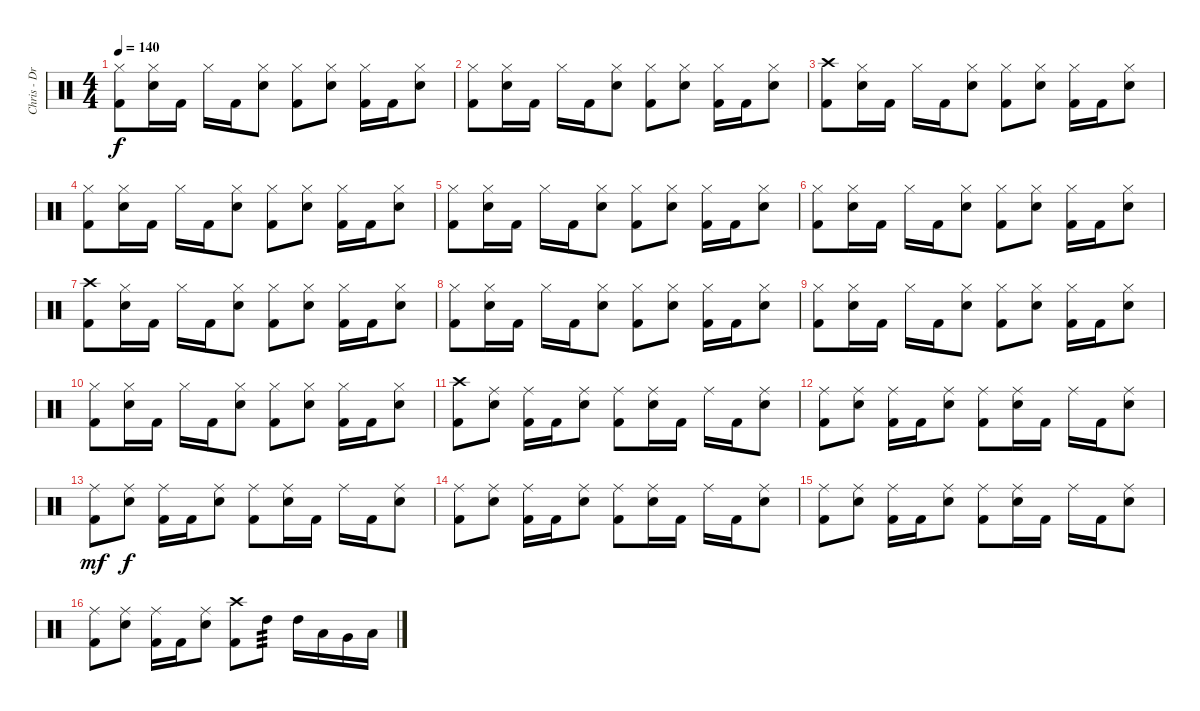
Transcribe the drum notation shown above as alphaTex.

\track ("Chris - Drums" "Chris - Dr") {instrument percussion}
\staff {score}
\articulation defaults
\ts (4 4)
\tempo 140
\clef neutral
\ks c
("Hi-Hat (closed)" "Kick (hit) 2").8{dy f} ("Hi-Hat (closed)" "Electric Snare (hit)").16 "Kick (hit) 2".16 "Hi-Hat (closed)".16 "Kick (hit) 2".16 ("Hi-Hat (closed)" "Electric Snare (hit)").8 ("Hi-Hat (closed)" "Kick (hit) 2").8 ("Hi-Hat (closed)" "Electric Snare (hit)").8 ("Hi-Hat (closed)" "Kick (hit) 2").16 "Kick (hit) 2".16 ("Hi-Hat (closed)" "Electric Snare (hit)").8 |
("Hi-Hat (closed)" "Kick (hit) 2").8 ("Hi-Hat (closed)" "Electric Snare (hit)").16 "Kick (hit) 2".16 "Hi-Hat (closed)".16 "Kick (hit) 2".16 ("Hi-Hat (closed)" "Electric Snare (hit)").8 ("Hi-Hat (closed)" "Kick (hit) 2").8 ("Hi-Hat (closed)" "Electric Snare (hit)").8 ("Hi-Hat (closed)" "Kick (hit) 2").16 "Kick (hit) 2".16 ("Hi-Hat (closed)" "Electric Snare (hit)").8 |
("Crash high (hit)" "Kick (hit) 2").8 ("Hi-Hat (closed)" "Electric Snare (hit)").16 "Kick (hit) 2".16 "Hi-Hat (closed)".16 "Kick (hit) 2".16 ("Hi-Hat (closed)" "Electric Snare (hit)").8 ("Hi-Hat (closed)" "Kick (hit) 2").8 ("Hi-Hat (closed)" "Electric Snare (hit)").8 ("Hi-Hat (closed)" "Kick (hit) 2").16 "Kick (hit) 2".16 ("Hi-Hat (closed)" "Electric Snare (hit)").8 |
("Hi-Hat (closed)" "Kick (hit) 2").8 ("Hi-Hat (closed)" "Electric Snare (hit)").16 "Kick (hit) 2".16 "Hi-Hat (closed)".16 "Kick (hit) 2".16 ("Hi-Hat (closed)" "Electric Snare (hit)").8 ("Hi-Hat (closed)" "Kick (hit) 2").8 ("Hi-Hat (closed)" "Electric Snare (hit)").8 ("Hi-Hat (closed)" "Kick (hit) 2").16 "Kick (hit) 2".16 ("Hi-Hat (closed)" "Electric Snare (hit)").8 |
("Hi-Hat (closed)" "Kick (hit) 2").8 ("Hi-Hat (closed)" "Electric Snare (hit)").16 "Kick (hit) 2".16 "Hi-Hat (closed)".16 "Kick (hit) 2".16 ("Hi-Hat (closed)" "Electric Snare (hit)").8 ("Hi-Hat (closed)" "Kick (hit) 2").8 ("Hi-Hat (closed)" "Electric Snare (hit)").8 ("Hi-Hat (closed)" "Kick (hit) 2").16 "Kick (hit) 2".16 ("Hi-Hat (closed)" "Electric Snare (hit)").8 |
("Hi-Hat (closed)" "Kick (hit) 2").8 ("Hi-Hat (closed)" "Electric Snare (hit)").16 "Kick (hit) 2".16 "Hi-Hat (closed)".16 "Kick (hit) 2".16 ("Hi-Hat (closed)" "Electric Snare (hit)").8 ("Hi-Hat (closed)" "Kick (hit) 2").8 ("Hi-Hat (closed)" "Electric Snare (hit)").8 ("Hi-Hat (closed)" "Kick (hit) 2").16 "Kick (hit) 2".16 ("Hi-Hat (closed)" "Electric Snare (hit)").8 |
("Crash high (hit)" "Kick (hit) 2").8 ("Hi-Hat (closed)" "Electric Snare (hit)").16 "Kick (hit) 2".16 "Hi-Hat (closed)".16 "Kick (hit) 2".16 ("Hi-Hat (closed)" "Electric Snare (hit)").8 ("Hi-Hat (closed)" "Kick (hit) 2").8 ("Hi-Hat (closed)" "Electric Snare (hit)").8 ("Hi-Hat (closed)" "Kick (hit) 2").16 "Kick (hit) 2".16 ("Hi-Hat (closed)" "Electric Snare (hit)").8 |
("Hi-Hat (closed)" "Kick (hit) 2").8 ("Hi-Hat (closed)" "Electric Snare (hit)").16 "Kick (hit) 2".16 "Hi-Hat (closed)".16 "Kick (hit) 2".16 ("Hi-Hat (closed)" "Electric Snare (hit)").8 ("Hi-Hat (closed)" "Kick (hit) 2").8 ("Hi-Hat (closed)" "Electric Snare (hit)").8 ("Hi-Hat (closed)" "Kick (hit) 2").16 "Kick (hit) 2".16 ("Hi-Hat (closed)" "Electric Snare (hit)").8 |
("Hi-Hat (closed)" "Kick (hit) 2").8 ("Hi-Hat (closed)" "Electric Snare (hit)").16 "Kick (hit) 2".16 "Hi-Hat (closed)".16 "Kick (hit) 2".16 ("Hi-Hat (closed)" "Electric Snare (hit)").8 ("Hi-Hat (closed)" "Kick (hit) 2").8 ("Hi-Hat (closed)" "Electric Snare (hit)").8 ("Hi-Hat (closed)" "Kick (hit) 2").16 "Kick (hit) 2".16 ("Hi-Hat (closed)" "Electric Snare (hit)").8 |
("Hi-Hat (closed)" "Kick (hit) 2").8 ("Hi-Hat (closed)" "Electric Snare (hit)").16 "Kick (hit) 2".16 "Hi-Hat (closed)".16 "Kick (hit) 2".16 ("Hi-Hat (closed)" "Electric Snare (hit)").8 ("Hi-Hat (closed)" "Kick (hit) 2").8 ("Hi-Hat (closed)" "Electric Snare (hit)").8 ("Hi-Hat (closed)" "Kick (hit) 2").16 "Kick (hit) 2".16 ("Hi-Hat (closed)" "Electric Snare (hit)").8 |
("Crash high (hit)" "Kick (hit) 2").8 ("Ride (middle)" "Electric Snare (hit)").8 ("Ride (middle)" "Kick (hit) 2").16 "Kick (hit) 2".16 ("Ride (middle)" "Electric Snare (hit)").8 ("Ride (middle)" "Kick (hit) 2").8 ("Ride (middle)" "Electric Snare (hit)").16 "Kick (hit) 2".16 "Ride (middle)".16 "Kick (hit) 2".16 ("Ride (middle)" "Electric Snare (hit)").8 |
("Ride (middle)" "Kick (hit) 2").8 ("Ride (middle)" "Electric Snare (hit)").8 ("Ride (middle)" "Kick (hit) 2").16 "Kick (hit) 2".16 ("Ride (middle)" "Electric Snare (hit)").8 ("Ride (middle)" "Kick (hit) 2").8 ("Ride (middle)" "Electric Snare (hit)").16 "Kick (hit) 2".16 "Ride (middle)".16 "Kick (hit) 2".16 ("Ride (middle)" "Electric Snare (hit)").8 |
("Ride (middle)" "Kick (hit) 2").8{dy mf} ("Ride (middle)" "Electric Snare (hit)").8{dy f} ("Ride (middle)" "Kick (hit) 2").16 "Kick (hit) 2".16 ("Ride (middle)" "Electric Snare (hit)").8 ("Ride (middle)" "Kick (hit) 2").8 ("Ride (middle)" "Electric Snare (hit)").16 "Kick (hit) 2".16 "Ride (middle)".16 "Kick (hit) 2".16 ("Ride (middle)" "Electric Snare (hit)").8 |
("Ride (middle)" "Kick (hit) 2").8 ("Ride (middle)" "Electric Snare (hit)").8 ("Ride (middle)" "Kick (hit) 2").16 "Kick (hit) 2".16 ("Ride (middle)" "Electric Snare (hit)").8 ("Ride (middle)" "Kick (hit) 2").8 ("Ride (middle)" "Electric Snare (hit)").16 "Kick (hit) 2".16 "Ride (middle)".16 "Kick (hit) 2".16 ("Ride (middle)" "Electric Snare (hit)").8 |
("Ride (middle)" "Kick (hit) 2").8 ("Ride (middle)" "Electric Snare (hit)").8 ("Ride (middle)" "Kick (hit) 2").16 "Kick (hit) 2".16 ("Ride (middle)" "Electric Snare (hit)").8 ("Ride (middle)" "Kick (hit) 2").8 ("Ride (middle)" "Electric Snare (hit)").16 "Kick (hit) 2".16 "Ride (middle)".16 "Kick (hit) 2".16 ("Ride (middle)" "Electric Snare (hit)").8 |
("Ride (middle)" "Kick (hit) 2").8 ("Ride (middle)" "Electric Snare (hit)").8 ("Ride (middle)" "Kick (hit) 2").16 "Kick (hit) 2".16 ("Ride (middle)" "Electric Snare (hit)").8 ("Crash high (hit)" "Kick (hit) 2").8 "High Tom (hit)".8{tp 3} "High Tom (hit)".16 "Low Tom (hit)".16 "Very Low Tom (hit)".16 "Low Floor Tom (hit)".16
